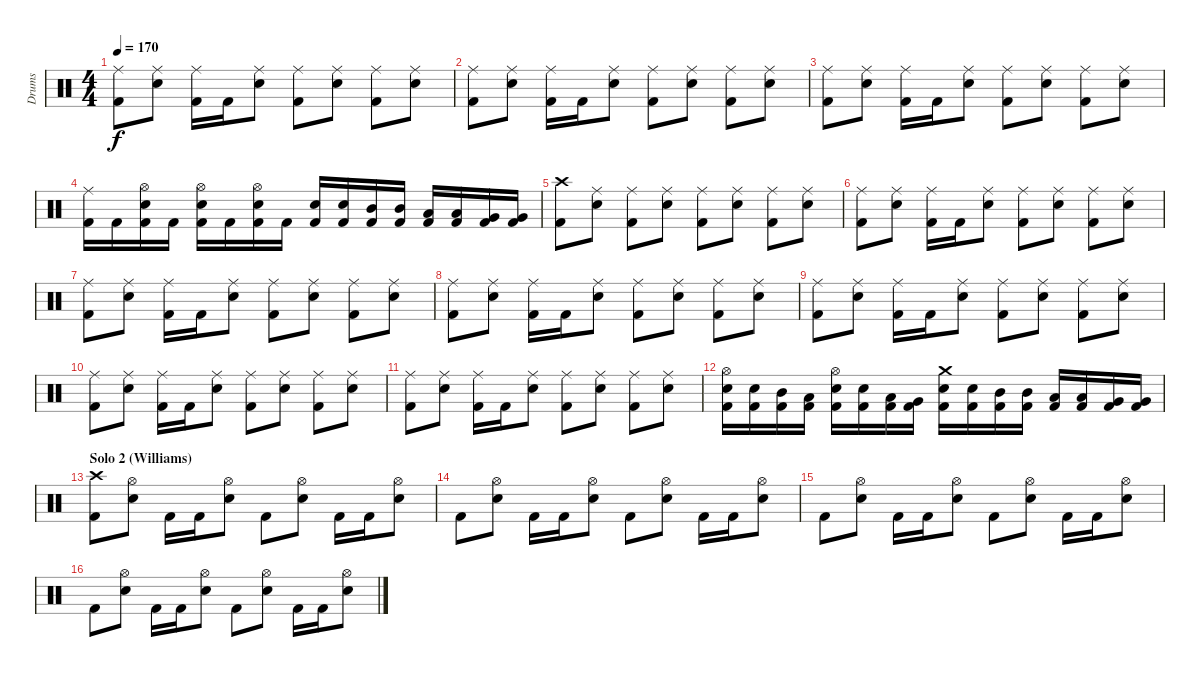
\track ("Drums" "Drums") {instrument percussion}
\staff {score}
\articulation defaults
\ts (4 4)
\tempo 170
\clef neutral
\ks c
("Ride (middle)" "Kick (hit) 2").8{dy f} ("Ride (middle)" "Snare (hit) 2").8 ("Ride (middle)" "Kick (hit) 2").16 "Kick (hit) 2".16 ("Ride (middle)" "Snare (hit) 2").8 ("Ride (middle)" "Kick (hit) 2").8 ("Ride (middle)" "Snare (hit) 2").8 ("Ride (middle)" "Kick (hit) 2").8 ("Ride (middle)" "Snare (hit) 2").8 |
("Ride (middle)" "Kick (hit) 2").8 ("Ride (middle)" "Snare (hit) 2").8 ("Ride (middle)" "Kick (hit) 2").16 "Kick (hit) 2".16 ("Ride (middle)" "Snare (hit) 2").8 ("Ride (middle)" "Kick (hit) 2").8 ("Ride (middle)" "Snare (hit) 2").8 ("Ride (middle)" "Kick (hit) 2").8 ("Ride (middle)" "Snare (hit) 2").8 |
("Ride (middle)" "Kick (hit) 2").8 ("Ride (middle)" "Snare (hit) 2").8 ("Ride (middle)" "Kick (hit) 2").16 "Kick (hit) 2".16 ("Ride (middle)" "Snare (hit) 2").8 ("Ride (middle)" "Kick (hit) 2").8 ("Ride (middle)" "Snare (hit) 2").8 ("Ride (middle)" "Kick (hit) 2").8 ("Ride (middle)" "Snare (hit) 2").8 |
\section ("" "")
("Ride (middle)" "Kick (hit) 2").16 "Kick (hit) 2".16 ("Hi-Hat (open)" "Snare (hit) 2" "Kick (hit) 2").16 "Kick (hit) 2".16 ("Hi-Hat (open)" "Snare (hit) 2" "Kick (hit) 2").16 "Kick (hit) 2".16 ("Hi-Hat (open)" "Snare (hit) 2" "Kick (hit) 2").16 "Kick (hit) 2".16 ("Snare (hit) 2" "Kick (hit) 2").16 ("Snare (hit) 2" "Kick (hit) 2").16 ("Mid Tom (hit)" "Kick (hit) 2").16 ("Mid Tom (hit)" "Kick (hit) 2").16 ("Low Tom (hit)" "Kick (hit) 2").16 ("Low Tom (hit)" "Kick (hit) 2").16 ("Very Low Tom (hit)" "Kick (hit) 2").16 ("Very Low Tom (hit)" "Kick (hit) 2").16 |
("Crash high (hit)" "Kick (hit) 2").8 ("Ride (middle)" "Snare (hit) 2").8 ("Ride (middle)" "Kick (hit) 2").8 ("Ride (middle)" "Snare (hit) 2").8 ("Ride (middle)" "Kick (hit) 2").8 ("Ride (middle)" "Snare (hit) 2").8 ("Ride (middle)" "Kick (hit) 2").8 ("Ride (middle)" "Snare (hit) 2").8 |
("Ride (middle)" "Kick (hit) 2").8 ("Ride (middle)" "Snare (hit) 2").8 ("Ride (middle)" "Kick (hit) 2").16 "Kick (hit) 2".16 ("Ride (middle)" "Snare (hit) 2").8 ("Ride (middle)" "Kick (hit) 2").8 ("Ride (middle)" "Snare (hit) 2").8 ("Ride (middle)" "Kick (hit) 2").8 ("Ride (middle)" "Snare (hit) 2").8 |
("Ride (middle)" "Kick (hit) 2").8 ("Ride (middle)" "Snare (hit) 2").8 ("Ride (middle)" "Kick (hit) 2").16 "Kick (hit) 2".16 ("Ride (middle)" "Snare (hit) 2").8 ("Ride (middle)" "Kick (hit) 2").8 ("Ride (middle)" "Snare (hit) 2").8 ("Ride (middle)" "Kick (hit) 2").8 ("Ride (middle)" "Snare (hit) 2").8 |
("Ride (middle)" "Kick (hit) 2").8 ("Ride (middle)" "Snare (hit) 2").8 ("Ride (middle)" "Kick (hit) 2").16 "Kick (hit) 2".16 ("Ride (middle)" "Snare (hit) 2").8 ("Ride (middle)" "Kick (hit) 2").8 ("Ride (middle)" "Snare (hit) 2").8 ("Ride (middle)" "Kick (hit) 2").8 ("Ride (middle)" "Snare (hit) 2").8 |
("Ride (middle)" "Kick (hit) 2").8 ("Ride (middle)" "Snare (hit) 2").8 ("Ride (middle)" "Kick (hit) 2").16 "Kick (hit) 2".16 ("Ride (middle)" "Snare (hit) 2").8 ("Ride (middle)" "Kick (hit) 2").8 ("Ride (middle)" "Snare (hit) 2").8 ("Ride (middle)" "Kick (hit) 2").8 ("Ride (middle)" "Snare (hit) 2").8 |
("Ride (middle)" "Kick (hit) 2").8 ("Ride (middle)" "Snare (hit) 2").8 ("Ride (middle)" "Kick (hit) 2").16 "Kick (hit) 2".16 ("Ride (middle)" "Snare (hit) 2").8 ("Ride (middle)" "Kick (hit) 2").8 ("Ride (middle)" "Snare (hit) 2").8 ("Ride (middle)" "Kick (hit) 2").8 ("Ride (middle)" "Snare (hit) 2").8 |
("Ride (middle)" "Kick (hit) 2").8 ("Ride (middle)" "Snare (hit) 2").8 ("Ride (middle)" "Kick (hit) 2").16 "Kick (hit) 2".16 ("Ride (middle)" "Snare (hit) 2").8 ("Ride (middle)" "Kick (hit) 2").8 ("Ride (middle)" "Snare (hit) 2").8 ("Ride (middle)" "Kick (hit) 2").8 ("Ride (middle)" "Snare (hit) 2").8 |
("Hi-Hat (open)" "Snare (hit) 2" "Kick (hit) 2").16 ("Snare (hit) 2" "Kick (hit) 2").16 ("Mid Tom (hit)" "Kick (hit) 2").16 ("Low Tom (hit)" "Kick (hit) 2").16 ("Hi-Hat (open)" "Snare (hit) 2" "Kick (hit) 2").16 ("Snare (hit) 2" "Kick (hit) 2").16 ("Low Tom (hit)" "Kick (hit) 2").16 ("Very Low Tom (hit)" "Kick (hit) 2").16 ("Crash medium (hit)" "Snare (hit) 2" "Kick (hit) 2").16 ("Snare (hit) 2" "Kick (hit) 2").16 ("Mid Tom (hit)" "Kick (hit) 2").16 ("Mid Tom (hit)" "Kick (hit) 2").16 ("Low Tom (hit)" "Kick (hit) 2").16 ("Low Tom (hit)" "Kick (hit) 2").16 ("Very Low Tom (hit)" "Kick (hit) 2").16 ("Very Low Tom (hit)" "Kick (hit) 2").16 |
\section ("" "Solo 2 (Williams)")
("Crash high (hit)" "Kick (hit) 2").8 ("Hi-Hat (open)" "Snare (hit) 2").8 "Kick (hit) 2".16 "Kick (hit) 2".16 ("Hi-Hat (open)" "Snare (hit) 2").8 "Kick (hit) 2".8 ("Hi-Hat (open)" "Snare (hit) 2").8 "Kick (hit) 2".16 "Kick (hit) 2".16 ("Hi-Hat (open)" "Snare (hit) 2").8 |
"Kick (hit) 2".8 ("Hi-Hat (open)" "Snare (hit) 2").8 "Kick (hit) 2".16 "Kick (hit) 2".16 ("Hi-Hat (open)" "Snare (hit) 2").8 "Kick (hit) 2".8 ("Hi-Hat (open)" "Snare (hit) 2").8 "Kick (hit) 2".16 "Kick (hit) 2".16 ("Hi-Hat (open)" "Snare (hit) 2").8 |
"Kick (hit) 2".8 ("Hi-Hat (open)" "Snare (hit) 2").8 "Kick (hit) 2".16 "Kick (hit) 2".16 ("Hi-Hat (open)" "Snare (hit) 2").8 "Kick (hit) 2".8 ("Hi-Hat (open)" "Snare (hit) 2").8 "Kick (hit) 2".16 "Kick (hit) 2".16 ("Hi-Hat (open)" "Snare (hit) 2").8 |
"Kick (hit) 2".8 ("Hi-Hat (open)" "Snare (hit) 2").8 "Kick (hit) 2".16 "Kick (hit) 2".16 ("Hi-Hat (open)" "Snare (hit) 2").8 "Kick (hit) 2".8 ("Hi-Hat (open)" "Snare (hit) 2").8 "Kick (hit) 2".16 "Kick (hit) 2".16 ("Hi-Hat (open)" "Snare (hit) 2").8
